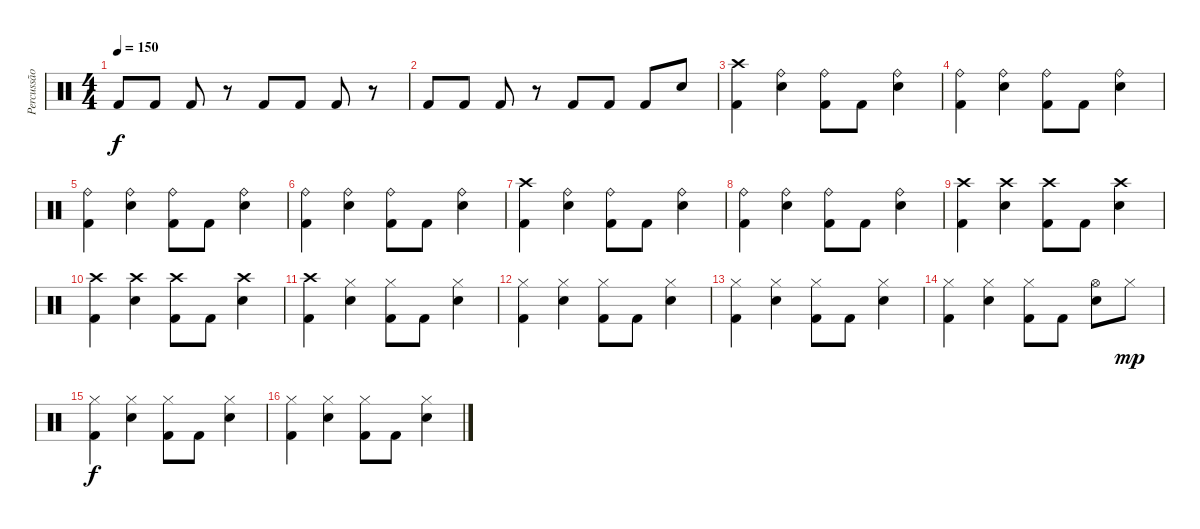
\track ("Percussão" "Percussão") {instrument percussion}
\staff {score}
\articulation defaults
\ts (4 4)
\tempo 150
\clef neutral
\ks c "Kick (hit) 2".8{dy f} "Kick (hit) 2".8 "Kick (hit) 2".8
r.8 "Kick (hit) 2".8 "Kick (hit) 2".8 "Kick (hit) 2".8 r.8 |
"Kick (hit) 2".8 "Kick (hit) 2".8 "Kick (hit) 2".8 r.8 "Kick (hit) 2".8 "Kick (hit) 2".8 "Kick (hit) 2".8 "Electric Snare (hit)".8 |
("Crash high (hit)" "Kick (hit) 2").4 ("Ride (bell)" "Electric Snare (hit)").4 ("Ride (bell)" "Kick (hit) 2").8 "Kick (hit) 2".8 ("Ride (bell)" "Electric Snare (hit)").4 |
("Ride (bell)" "Kick (hit) 2").4 ("Ride (bell)" "Electric Snare (hit)").4 ("Ride (bell)" "Kick (hit) 2").8 "Kick (hit) 2".8 ("Ride (bell)" "Electric Snare (hit)").4 |
("Ride (bell)" "Kick (hit) 2").4 ("Ride (bell)" "Electric Snare (hit)").4 ("Ride (bell)" "Kick (hit) 2").8 "Kick (hit) 2".8 ("Ride (bell)" "Electric Snare (hit)").4 |
("Ride (bell)" "Kick (hit) 2").4 ("Ride (bell)" "Electric Snare (hit)").4 ("Ride (bell)" "Kick (hit) 2").8 "Kick (hit) 2".8 ("Ride (bell)" "Electric Snare (hit)").4 |
("Crash high (hit)" "Kick (hit) 2").4 ("Ride (bell)" "Electric Snare (hit)").4 ("Ride (bell)" "Kick (hit) 2").8 "Kick (hit) 2".8 ("Ride (bell)" "Electric Snare (hit)").4 |
("Ride (bell)" "Kick (hit) 2").4 ("Ride (bell)" "Electric Snare (hit)").4 ("Ride (bell)" "Kick (hit) 2").8 "Kick (hit) 2".8 ("Ride (bell)" "Electric Snare (hit)").4 |
("Crash high (hit)" "Kick (hit) 2").4 ("Crash high (hit)" "Electric Snare (hit)").4 ("Crash high (hit)" "Kick (hit) 2").8 "Kick (hit) 2".8 ("Crash high (hit)" "Electric Snare (hit)").4 |
("Crash high (hit)" "Kick (hit) 2").4 ("Crash high (hit)" "Electric Snare (hit)").4 ("Crash high (hit)" "Kick (hit) 2").8 "Kick (hit) 2".8 ("Crash high (hit)" "Electric Snare (hit)").4 |
("Crash high (hit)" "Kick (hit) 2").4 ("Hi-Hat (closed)" "Electric Snare (hit)").4 ("Hi-Hat (closed)" "Kick (hit) 2").8 "Kick (hit) 2".8 ("Hi-Hat (closed)" "Electric Snare (hit)").4 |
("Hi-Hat (closed)" "Kick (hit) 2").4 ("Hi-Hat (closed)" "Electric Snare (hit)").4 ("Hi-Hat (closed)" "Kick (hit) 2").8 "Kick (hit) 2".8 ("Hi-Hat (closed)" "Electric Snare (hit)").4 |
("Hi-Hat (closed)" "Kick (hit) 2").4 ("Hi-Hat (closed)" "Electric Snare (hit)").4 ("Hi-Hat (closed)" "Kick (hit) 2").8 "Kick (hit) 2".8 ("Hi-Hat (closed)" "Electric Snare (hit)").4 |
("Hi-Hat (closed)" "Kick (hit) 2").4 ("Hi-Hat (closed)" "Electric Snare (hit)").4 ("Hi-Hat (closed)" "Kick (hit) 2").8 "Kick (hit) 2".8 ("Hi-Hat (open)" "Electric Snare (hit)").8 "Hi-Hat (closed)".8{dy mp} |
("Hi-Hat (closed)" "Kick (hit) 2").4{dy f} ("Hi-Hat (closed)" "Electric Snare (hit)").4 ("Hi-Hat (closed)" "Kick (hit) 2").8 "Kick (hit) 2".8 ("Hi-Hat (closed)" "Electric Snare (hit)").4 |
("Hi-Hat (closed)" "Kick (hit) 2").4 ("Hi-Hat (closed)" "Electric Snare (hit)").4 ("Hi-Hat (closed)" "Kick (hit) 2").8 "Kick (hit) 2".8 ("Hi-Hat (closed)" "Electric Snare (hit)").4
